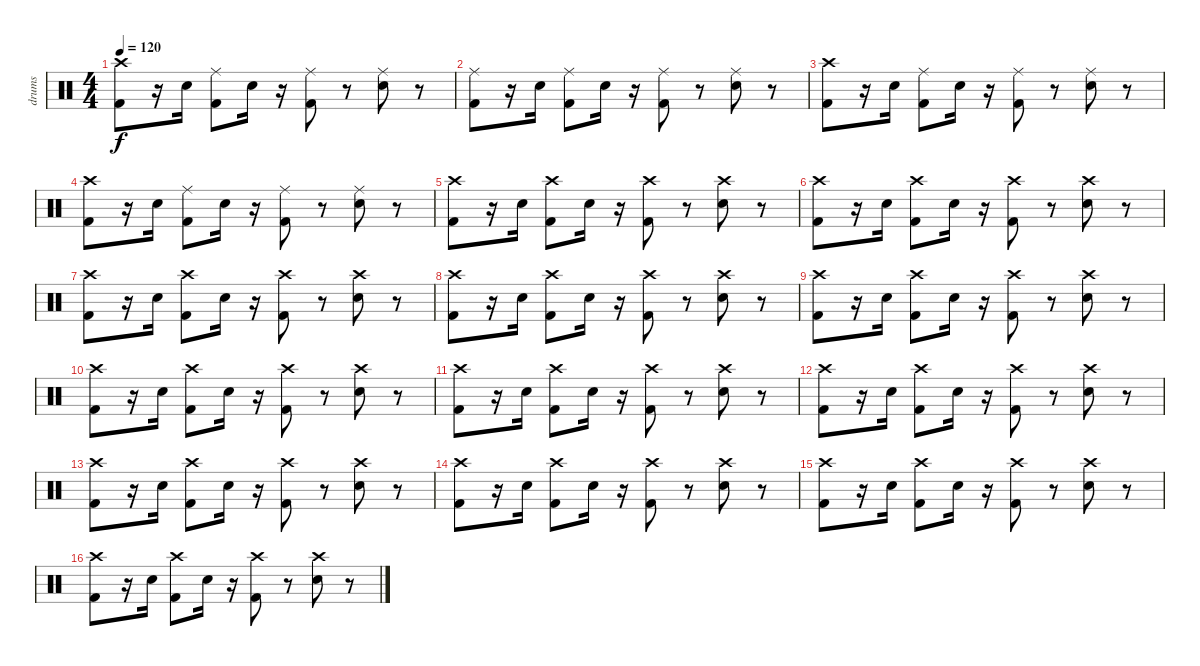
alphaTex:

\track ("drums" "drums") {instrument percussion}
\staff {score}
\articulation defaults
\ts (4 4)
\tempo 120
\clef neutral
\ks c
("Crash high (hit)" "Kick (hit) 2").8{dy f} r.16 "Snare (hit) 2".16 ("Ride (middle)" "Kick (hit) 2").8 "Snare (hit) 2".16 r.16 ("Ride (middle)" "Kick (hit) 2").8 r.8 ("Ride (middle)" "Snare (hit) 2").8 r.8 |
("Ride (middle)" "Kick (hit) 2").8 r.16 "Snare (hit) 2".16 ("Ride (middle)" "Kick (hit) 2").8 "Snare (hit) 2".16 r.16 ("Ride (middle)" "Kick (hit) 2").8 r.8 ("Ride (middle)" "Snare (hit) 2").8 r.8 |
("Crash high (hit)" "Kick (hit) 2").8 r.16 "Snare (hit) 2".16 ("Ride (middle)" "Kick (hit) 2").8 "Snare (hit) 2".16 r.16 ("Ride (middle)" "Kick (hit) 2").8 r.8 ("Ride (middle)" "Snare (hit) 2").8 r.8 |
("Crash high (hit)" "Kick (hit) 2").8 r.16 "Snare (hit) 2".16 ("Ride (middle)" "Kick (hit) 2").8 "Snare (hit) 2".16 r.16 ("Ride (middle)" "Kick (hit) 2").8 r.8 ("Ride (middle)" "Snare (hit) 2").8 r.8 |
("Crash high (hit)" "Kick (hit) 2").8 r.16 "Snare (hit) 2".16 ("Crash high (hit)" "Kick (hit) 2").8 "Snare (hit) 2".16 r.16 ("Crash high (hit)" "Kick (hit) 2").8 r.8 ("Crash high (hit)" "Snare (hit) 2").8 r.8 |
("Crash high (hit)" "Kick (hit) 2").8 r.16 "Snare (hit) 2".16 ("Crash high (hit)" "Kick (hit) 2").8 "Snare (hit) 2".16 r.16 ("Crash high (hit)" "Kick (hit) 2").8 r.8 ("Crash high (hit)" "Snare (hit) 2").8 r.8 |
("Crash high (hit)" "Kick (hit) 2").8 r.16 "Snare (hit) 2".16 ("Crash high (hit)" "Kick (hit) 2").8 "Snare (hit) 2".16 r.16 ("Crash high (hit)" "Kick (hit) 2").8 r.8 ("Crash high (hit)" "Snare (hit) 2").8 r.8 |
("Crash high (hit)" "Kick (hit) 2").8 r.16 "Snare (hit) 2".16 ("Crash high (hit)" "Kick (hit) 2").8 "Snare (hit) 2".16 r.16 ("Crash high (hit)" "Kick (hit) 2").8 r.8 ("Crash high (hit)" "Snare (hit) 2").8 r.8 |
("Crash high (hit)" "Kick (hit) 2").8 r.16 "Snare (hit) 2".16 ("Crash high (hit)" "Kick (hit) 2").8 "Snare (hit) 2".16 r.16 ("Crash high (hit)" "Kick (hit) 2").8 r.8 ("Crash high (hit)" "Snare (hit) 2").8 r.8 |
("Crash high (hit)" "Kick (hit) 2").8 r.16 "Snare (hit) 2".16 ("Crash high (hit)" "Kick (hit) 2").8 "Snare (hit) 2".16 r.16 ("Crash high (hit)" "Kick (hit) 2").8 r.8 ("Crash high (hit)" "Snare (hit) 2").8 r.8 |
("Crash high (hit)" "Kick (hit) 2").8 r.16 "Snare (hit) 2".16 ("Crash high (hit)" "Kick (hit) 2").8 "Snare (hit) 2".16 r.16 ("Crash high (hit)" "Kick (hit) 2").8 r.8 ("Crash high (hit)" "Snare (hit) 2").8 r.8 |
("Crash high (hit)" "Kick (hit) 2").8 r.16 "Snare (hit) 2".16 ("Crash high (hit)" "Kick (hit) 2").8 "Snare (hit) 2".16 r.16 ("Crash high (hit)" "Kick (hit) 2").8 r.8 ("Crash high (hit)" "Snare (hit) 2").8 r.8 |
("Crash high (hit)" "Kick (hit) 2").8 r.16 "Snare (hit) 2".16 ("Crash high (hit)" "Kick (hit) 2").8 "Snare (hit) 2".16 r.16 ("Crash high (hit)" "Kick (hit) 2").8 r.8 ("Crash high (hit)" "Snare (hit) 2").8 r.8 |
("Crash high (hit)" "Kick (hit) 2").8 r.16 "Snare (hit) 2".16 ("Crash high (hit)" "Kick (hit) 2").8 "Snare (hit) 2".16 r.16 ("Crash high (hit)" "Kick (hit) 2").8 r.8 ("Crash high (hit)" "Snare (hit) 2").8 r.8 |
("Crash high (hit)" "Kick (hit) 2").8 r.16 "Snare (hit) 2".16 ("Crash high (hit)" "Kick (hit) 2").8 "Snare (hit) 2".16 r.16 ("Crash high (hit)" "Kick (hit) 2").8 r.8 ("Crash high (hit)" "Snare (hit) 2").8 r.8 |
("Crash high (hit)" "Kick (hit) 2").8 r.16 "Snare (hit) 2".16 ("Crash high (hit)" "Kick (hit) 2").8 "Snare (hit) 2".16 r.16 ("Crash high (hit)" "Kick (hit) 2").8 r.8 ("Crash high (hit)" "Snare (hit) 2").8 r.8
